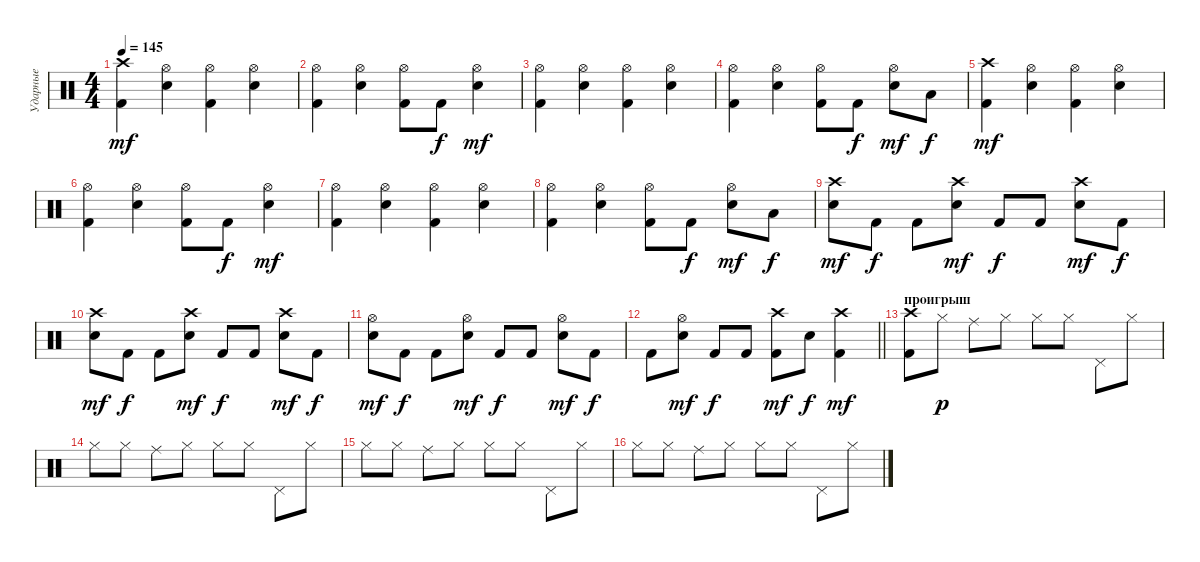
\track ("Ударные" "Ударные") {instrument percussion}
\staff {score}
\articulation defaults
\ts (4 4)
\tempo 145
\clef neutral
\ks c
("Kick (hit) 2" "Crash high (hit)").4{dy mf} ("Snare (hit) 2" "Hi-Hat (open)").4 ("Kick (hit) 2" "Hi-Hat (open)").4 ("Snare (hit) 2" "Hi-Hat (open)").4 |
("Kick (hit) 2" "Hi-Hat (open)").4 ("Snare (hit) 2" "Hi-Hat (open)").4 ("Kick (hit) 2" "Hi-Hat (open)").8 "Kick (hit) 2".8{dy f} ("Snare (hit) 2" "Hi-Hat (open)").4{dy mf} |
("Kick (hit) 2" "Hi-Hat (open)").4 ("Snare (hit) 2" "Hi-Hat (open)").4 ("Kick (hit) 2" "Hi-Hat (open)").4 ("Snare (hit) 2" "Hi-Hat (open)").4 |
("Kick (hit) 2" "Hi-Hat (open)").4 ("Snare (hit) 2" "Hi-Hat (open)").4 ("Kick (hit) 2" "Hi-Hat (open)").8 "Kick (hit) 2".8{dy f} ("Snare (hit) 2" "Hi-Hat (open)").8{dy mf} "Low Floor Tom (hit)".8{dy f} |
("Kick (hit) 2" "Crash high (hit)").4{dy mf} ("Snare (hit) 2" "Hi-Hat (open)").4 ("Kick (hit) 2" "Hi-Hat (open)").4 ("Snare (hit) 2" "Hi-Hat (open)").4 |
("Kick (hit) 2" "Hi-Hat (open)").4 ("Snare (hit) 2" "Hi-Hat (open)").4 ("Kick (hit) 2" "Hi-Hat (open)").8 "Kick (hit) 2".8{dy f} ("Snare (hit) 2" "Hi-Hat (open)").4{dy mf} |
("Kick (hit) 2" "Hi-Hat (open)").4 ("Snare (hit) 2" "Hi-Hat (open)").4 ("Kick (hit) 2" "Hi-Hat (open)").4 ("Snare (hit) 2" "Hi-Hat (open)").4 |
("Kick (hit) 2" "Hi-Hat (open)").4 ("Snare (hit) 2" "Hi-Hat (open)").4 ("Kick (hit) 2" "Hi-Hat (open)").8 "Kick (hit) 2".8{dy f} ("Snare (hit) 2" "Hi-Hat (open)").8{dy mf} "Low Floor Tom (hit)".8{dy f} |
("Snare (hit) 2" "Crash high (hit)").8{dy mf} "Kick (hit) 2".8{dy f} "Kick (hit) 2".8 ("Snare (hit) 2" "Crash high (hit)").8{dy mf} "Kick (hit) 2".8{dy f} "Kick (hit) 2".8 ("Snare (hit) 2" "Crash high (hit)").8{dy mf} "Kick (hit) 2".8{dy f} |
("Snare (hit) 2" "Crash high (hit)").8{dy mf} "Kick (hit) 2".8{dy f} "Kick (hit) 2".8 ("Snare (hit) 2" "Crash high (hit)").8{dy mf} "Kick (hit) 2".8{dy f} "Kick (hit) 2".8 ("Snare (hit) 2" "Crash high (hit)").8{dy mf} "Kick (hit) 2".8{dy f} |
("Snare (hit) 2" "Hi-Hat (open)").8{dy mf} "Kick (hit) 2".8{dy f} "Kick (hit) 2".8 ("Snare (hit) 2" "Hi-Hat (open)").8{dy mf} "Kick (hit) 2".8{dy f} "Kick (hit) 2".8 ("Snare (hit) 2" "Hi-Hat (open)").8{dy mf} "Kick (hit) 2".8{dy f} |
\barLineRight lightlight "Kick (hit) 2".8
("Snare (hit) 2" "Hi-Hat (open)").8{dy mf} "Kick (hit) 2".8{dy f} "Kick (hit) 2".8 ("Kick (hit) 2" "Crash high (hit)").8{dy mf} "Snare (hit) 2".8{dy f} ("Kick (hit) 2" "Crash high (hit)").4{dy mf} |
\section ("" "проигрыш")
("Kick (hit) 2" "Crash high (hit)").8 "Hi-Hat (closed)".8{dy p} "Ride (middle)".8 "Hi-Hat (closed)".8 "Hi-Hat (closed)".8 "Hi-Hat (closed)".8 "Pedal Hi-Hat (hit)".8 "Hi-Hat (closed)".8 |
"Hi-Hat (closed)".8 "Hi-Hat (closed)".8 "Ride (middle)".8 "Hi-Hat (closed)".8 "Hi-Hat (closed)".8 "Hi-Hat (closed)".8 "Pedal Hi-Hat (hit)".8 "Hi-Hat (closed)".8 |
"Hi-Hat (closed)".8 "Hi-Hat (closed)".8 "Ride (middle)".8 "Hi-Hat (closed)".8 "Hi-Hat (closed)".8 "Hi-Hat (closed)".8 "Pedal Hi-Hat (hit)".8 "Hi-Hat (closed)".8 |
"Hi-Hat (closed)".8 "Hi-Hat (closed)".8 "Ride (middle)".8 "Hi-Hat (closed)".8 "Hi-Hat (closed)".8 "Hi-Hat (closed)".8 "Pedal Hi-Hat (hit)".8 "Hi-Hat (closed)".8
